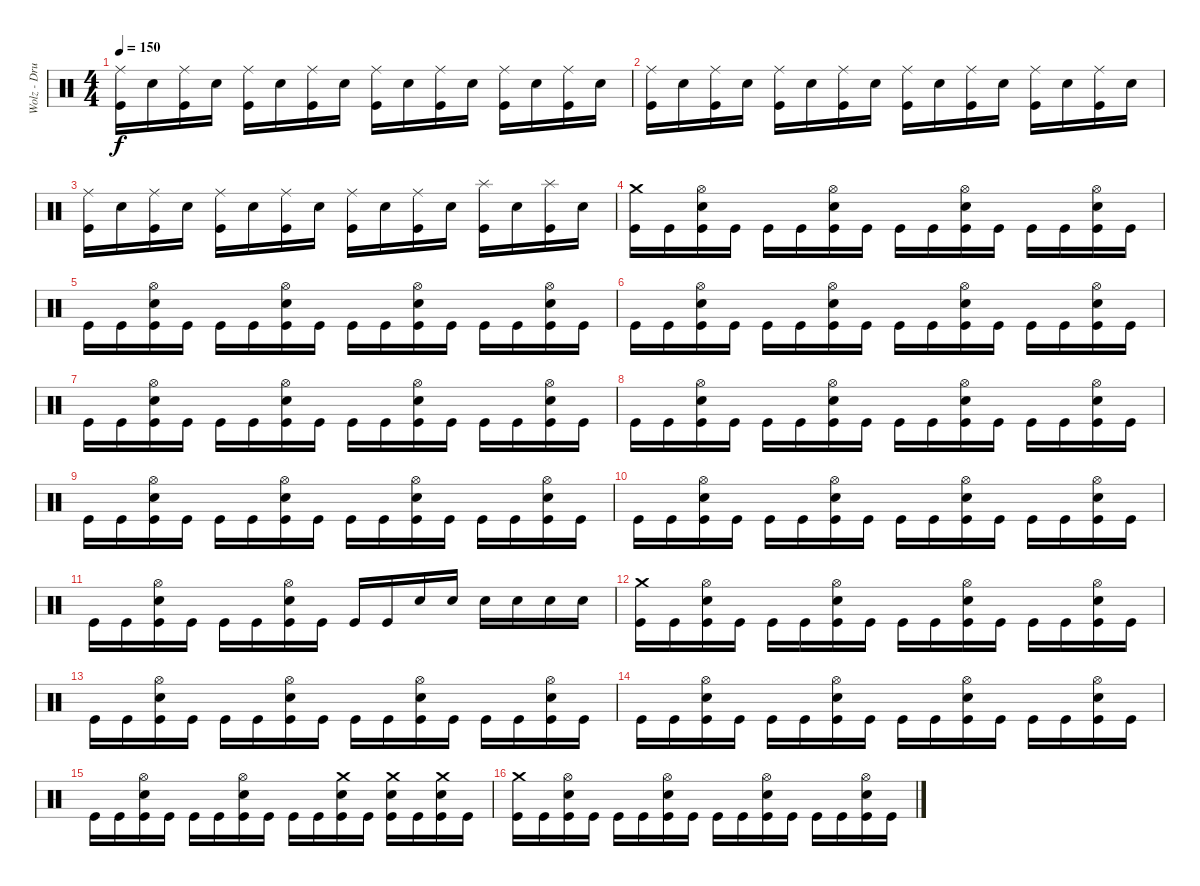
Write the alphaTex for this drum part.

\track ("Wolz - Drums" "Wolz - Dru") {instrument percussion}
\staff {score}
\articulation defaults
\ts (4 4)
\tempo 150
\clef neutral
\ks c
("Ride (middle)" "Kick (hit)").16{dy f} "Electric Snare (hit)".16 ("Ride (middle)" "Kick (hit)").16 "Electric Snare (hit)".16 ("Ride (middle)" "Kick (hit)").16 "Electric Snare (hit)".16 ("Ride (middle)" "Kick (hit)").16 "Electric Snare (hit)".16 ("Ride (middle)" "Kick (hit)").16 "Electric Snare (hit)".16 ("Ride (middle)" "Kick (hit)").16 "Electric Snare (hit)".16 ("Ride (middle)" "Kick (hit)").16 "Electric Snare (hit)".16 ("Ride (middle)" "Kick (hit)").16 "Electric Snare (hit)".16 |
("Ride (middle)" "Kick (hit)").16 "Electric Snare (hit)".16 ("Ride (middle)" "Kick (hit)").16 "Electric Snare (hit)".16 ("Ride (middle)" "Kick (hit)").16 "Electric Snare (hit)".16 ("Ride (middle)" "Kick (hit)").16 "Electric Snare (hit)".16 ("Ride (middle)" "Kick (hit)").16 "Electric Snare (hit)".16 ("Ride (middle)" "Kick (hit)").16 "Electric Snare (hit)".16 ("Ride (middle)" "Kick (hit)").16 "Electric Snare (hit)".16 ("Ride (middle)" "Kick (hit)").16 "Electric Snare (hit)".16 |
("Ride (middle)" "Kick (hit)").16 "Electric Snare (hit)".16 ("Ride (middle)" "Kick (hit)").16 "Electric Snare (hit)".16 ("Ride (middle)" "Kick (hit)").16 "Electric Snare (hit)".16 ("Ride (middle)" "Kick (hit)").16 "Electric Snare (hit)".16 ("Ride (middle)" "Kick (hit)").16 "Electric Snare (hit)".16 ("Ride (middle)" "Kick (hit)").16 "Electric Snare (hit)".16 ("Splash (hit)" "Kick (hit)").16 "Electric Snare (hit)".16 ("Splash (hit)" "Kick (hit)").16 "Electric Snare (hit)".16 |
("Crash medium (hit)" "Kick (hit)").16 "Kick (hit)".16 ("Hi-Hat (open)" "Electric Snare (hit)" "Kick (hit)").16 "Kick (hit)".16 "Kick (hit)".16 "Kick (hit)".16 ("Hi-Hat (open)" "Electric Snare (hit)" "Kick (hit)").16 "Kick (hit)".16 "Kick (hit)".16 "Kick (hit)".16 ("Hi-Hat (open)" "Electric Snare (hit)" "Kick (hit)").16 "Kick (hit)".16 "Kick (hit)".16 "Kick (hit)".16 ("Hi-Hat (open)" "Electric Snare (hit)" "Kick (hit)").16 "Kick (hit)".16 |
"Kick (hit)".16 "Kick (hit)".16 ("Hi-Hat (open)" "Electric Snare (hit)" "Kick (hit)").16 "Kick (hit)".16 "Kick (hit)".16 "Kick (hit)".16 ("Hi-Hat (open)" "Electric Snare (hit)" "Kick (hit)").16 "Kick (hit)".16 "Kick (hit)".16 "Kick (hit)".16 ("Hi-Hat (open)" "Electric Snare (hit)" "Kick (hit)").16 "Kick (hit)".16 "Kick (hit)".16 "Kick (hit)".16 ("Hi-Hat (open)" "Electric Snare (hit)" "Kick (hit)").16 "Kick (hit)".16 |
"Kick (hit)".16 "Kick (hit)".16 ("Hi-Hat (open)" "Electric Snare (hit)" "Kick (hit)").16 "Kick (hit)".16 "Kick (hit)".16 "Kick (hit)".16 ("Hi-Hat (open)" "Electric Snare (hit)" "Kick (hit)").16 "Kick (hit)".16 "Kick (hit)".16 "Kick (hit)".16 ("Hi-Hat (open)" "Electric Snare (hit)" "Kick (hit)").16 "Kick (hit)".16 "Kick (hit)".16 "Kick (hit)".16 ("Hi-Hat (open)" "Electric Snare (hit)" "Kick (hit)").16 "Kick (hit)".16 |
"Kick (hit)".16 "Kick (hit)".16 ("Hi-Hat (open)" "Electric Snare (hit)" "Kick (hit)").16 "Kick (hit)".16 "Kick (hit)".16 "Kick (hit)".16 ("Hi-Hat (open)" "Electric Snare (hit)" "Kick (hit)").16 "Kick (hit)".16 "Kick (hit)".16 "Kick (hit)".16 ("Hi-Hat (open)" "Electric Snare (hit)" "Kick (hit)").16 "Kick (hit)".16 "Kick (hit)".16 "Kick (hit)".16 ("Hi-Hat (open)" "Electric Snare (hit)" "Kick (hit)").16 "Kick (hit)".16 |
"Kick (hit)".16 "Kick (hit)".16 ("Hi-Hat (open)" "Electric Snare (hit)" "Kick (hit)").16 "Kick (hit)".16 "Kick (hit)".16 "Kick (hit)".16 ("Hi-Hat (open)" "Electric Snare (hit)" "Kick (hit)").16 "Kick (hit)".16 "Kick (hit)".16 "Kick (hit)".16 ("Hi-Hat (open)" "Electric Snare (hit)" "Kick (hit)").16 "Kick (hit)".16 "Kick (hit)".16 "Kick (hit)".16 ("Hi-Hat (open)" "Electric Snare (hit)" "Kick (hit)").16 "Kick (hit)".16 |
"Kick (hit)".16 "Kick (hit)".16 ("Hi-Hat (open)" "Electric Snare (hit)" "Kick (hit)").16 "Kick (hit)".16 "Kick (hit)".16 "Kick (hit)".16 ("Hi-Hat (open)" "Electric Snare (hit)" "Kick (hit)").16 "Kick (hit)".16 "Kick (hit)".16 "Kick (hit)".16 ("Hi-Hat (open)" "Electric Snare (hit)" "Kick (hit)").16 "Kick (hit)".16 "Kick (hit)".16 "Kick (hit)".16 ("Hi-Hat (open)" "Electric Snare (hit)" "Kick (hit)").16 "Kick (hit)".16 |
"Kick (hit)".16 "Kick (hit)".16 ("Hi-Hat (open)" "Electric Snare (hit)" "Kick (hit)").16 "Kick (hit)".16 "Kick (hit)".16 "Kick (hit)".16 ("Hi-Hat (open)" "Electric Snare (hit)" "Kick (hit)").16 "Kick (hit)".16 "Kick (hit)".16 "Kick (hit)".16 ("Hi-Hat (open)" "Electric Snare (hit)" "Kick (hit)").16 "Kick (hit)".16 "Kick (hit)".16 "Kick (hit)".16 ("Hi-Hat (open)" "Electric Snare (hit)" "Kick (hit)").16 "Kick (hit)".16 |
"Kick (hit)".16 "Kick (hit)".16 ("Hi-Hat (open)" "Electric Snare (hit)" "Kick (hit)").16 "Kick (hit)".16 "Kick (hit)".16 "Kick (hit)".16 ("Hi-Hat (open)" "Electric Snare (hit)" "Kick (hit)").16 "Kick (hit)".16 "Kick (hit)".16 "Kick (hit)".16 "Electric Snare (hit)".16 "Electric Snare (hit)".16 "Electric Snare (hit)".16 "Electric Snare (hit)".16 "Electric Snare (hit)".16 "Electric Snare (hit)".16 |
("Crash medium (hit)" "Kick (hit)").16 "Kick (hit)".16 ("Hi-Hat (open)" "Electric Snare (hit)" "Kick (hit)").16 "Kick (hit)".16 "Kick (hit)".16 "Kick (hit)".16 ("Hi-Hat (open)" "Electric Snare (hit)" "Kick (hit)").16 "Kick (hit)".16 "Kick (hit)".16 "Kick (hit)".16 ("Hi-Hat (open)" "Electric Snare (hit)" "Kick (hit)").16 "Kick (hit)".16 "Kick (hit)".16 "Kick (hit)".16 ("Hi-Hat (open)" "Electric Snare (hit)" "Kick (hit)").16 "Kick (hit)".16 |
"Kick (hit)".16 "Kick (hit)".16 ("Hi-Hat (open)" "Electric Snare (hit)" "Kick (hit)").16 "Kick (hit)".16 "Kick (hit)".16 "Kick (hit)".16 ("Hi-Hat (open)" "Electric Snare (hit)" "Kick (hit)").16 "Kick (hit)".16 "Kick (hit)".16 "Kick (hit)".16 ("Hi-Hat (open)" "Electric Snare (hit)" "Kick (hit)").16 "Kick (hit)".16 "Kick (hit)".16 "Kick (hit)".16 ("Hi-Hat (open)" "Electric Snare (hit)" "Kick (hit)").16 "Kick (hit)".16 |
"Kick (hit)".16 "Kick (hit)".16 ("Hi-Hat (open)" "Electric Snare (hit)" "Kick (hit)").16 "Kick (hit)".16 "Kick (hit)".16 "Kick (hit)".16 ("Hi-Hat (open)" "Electric Snare (hit)" "Kick (hit)").16 "Kick (hit)".16 "Kick (hit)".16 "Kick (hit)".16 ("Hi-Hat (open)" "Electric Snare (hit)" "Kick (hit)").16 "Kick (hit)".16 "Kick (hit)".16 "Kick (hit)".16 ("Hi-Hat (open)" "Electric Snare (hit)" "Kick (hit)").16 "Kick (hit)".16 |
"Kick (hit)".16 "Kick (hit)".16 ("Hi-Hat (open)" "Electric Snare (hit)" "Kick (hit)").16 "Kick (hit)".16 "Kick (hit)".16 "Kick (hit)".16 ("Hi-Hat (open)" "Electric Snare (hit)" "Kick (hit)").16 "Kick (hit)".16 "Kick (hit)".16 "Kick (hit)".16 ("Crash medium (hit)" "Electric Snare (hit)" "Kick (hit)").16 "Kick (hit)".16 ("Crash medium (hit)" "Electric Snare (hit)" "Kick (hit)").16 "Kick (hit)".16 ("Crash medium (hit)" "Electric Snare (hit)" "Kick (hit)").16 "Kick (hit)".16 |
("Crash medium (hit)" "Kick (hit)").16 "Kick (hit)".16 ("Hi-Hat (open)" "Electric Snare (hit)" "Kick (hit)").16 "Kick (hit)".16 "Kick (hit)".16 "Kick (hit)".16 ("Hi-Hat (open)" "Electric Snare (hit)" "Kick (hit)").16 "Kick (hit)".16 "Kick (hit)".16 "Kick (hit)".16 ("Hi-Hat (open)" "Electric Snare (hit)" "Kick (hit)").16 "Kick (hit)".16 "Kick (hit)".16 "Kick (hit)".16 ("Hi-Hat (open)" "Electric Snare (hit)" "Kick (hit)").16 "Kick (hit)".16
